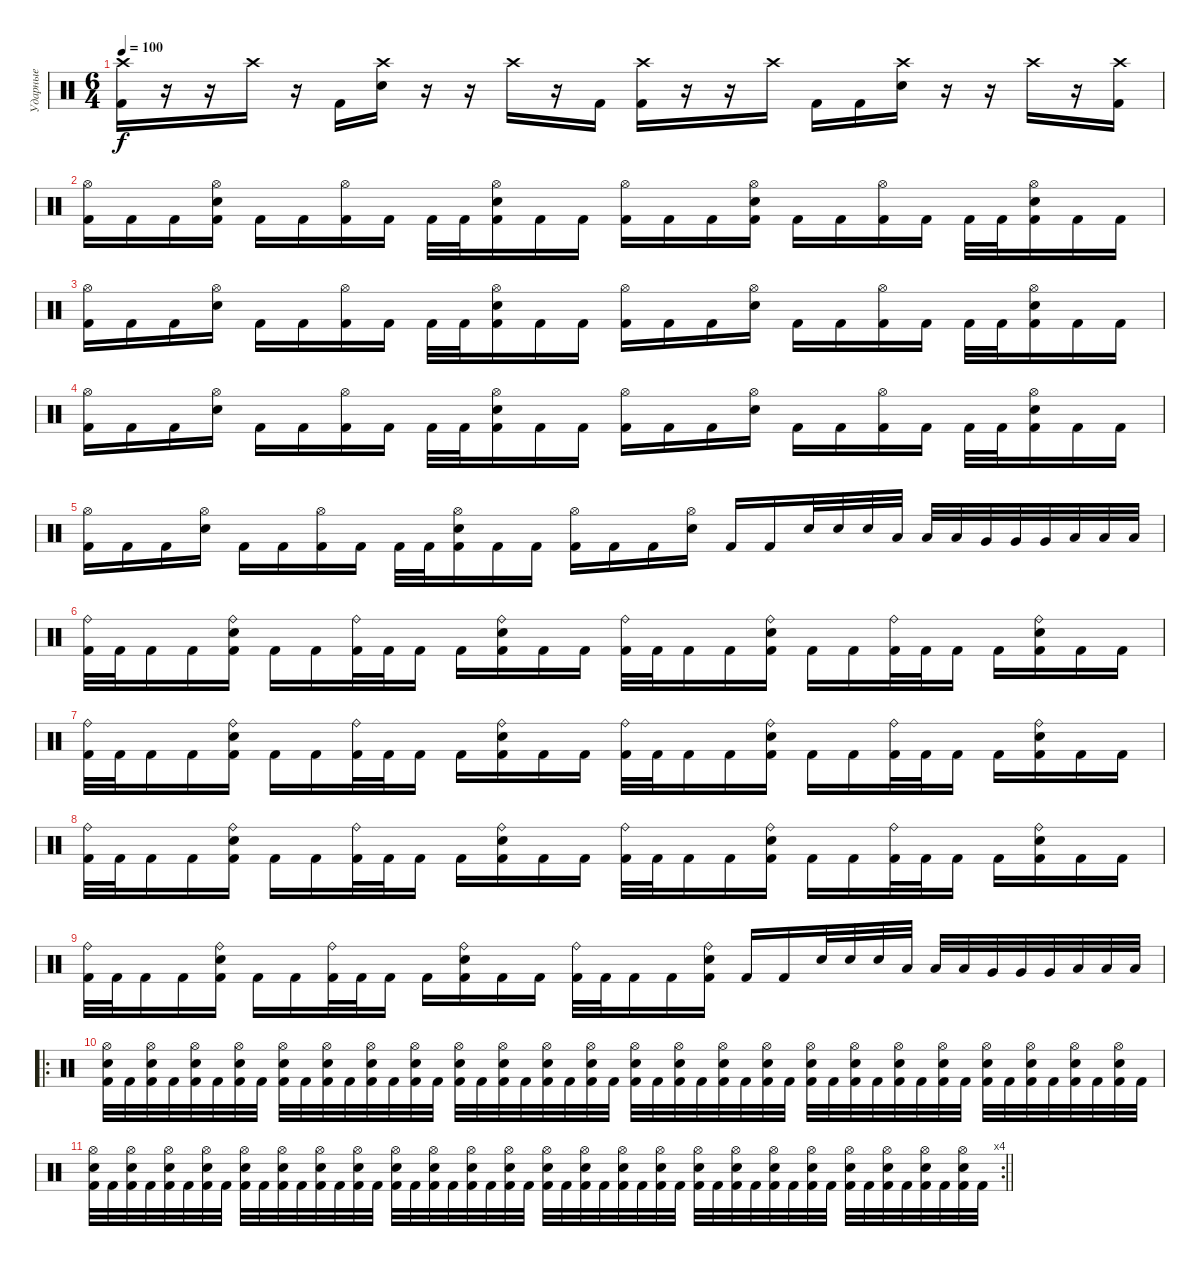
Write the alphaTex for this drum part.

\track ("Ударные" "Ударные") {instrument percussion}
\staff {score}
\articulation defaults
\ts (6 4)
\tempo 100
\clef neutral
\ks c
("Crash high (hit)" "Kick (hit) 2").16{dy f} r.16 r.16 "Crash high (hit)".16 r.16 "Kick (hit) 2".16 ("Crash high (hit)" "Electric Snare (hit)").16 r.16 r.16 "Crash high (hit)".16 r.16 "Kick (hit) 2".16 ("Crash high (hit)" "Kick (hit) 2").16 r.16 r.16 "Crash high (hit)".16 "Kick (hit) 2".16 "Kick (hit) 2".16 ("Crash high (hit)" "Electric Snare (hit)").16 r.16 r.16 "Crash high (hit)".16 r.16 ("Crash high (hit)" "Kick (hit) 2").16 |
("Hi-Hat (open)" "Kick (hit) 2").16 "Kick (hit) 2".16 "Kick (hit) 2".16 ("Hi-Hat (open)" "Electric Snare (hit)" "Kick (hit) 2").16 "Kick (hit) 2".16 "Kick (hit) 2".16 ("Hi-Hat (open)" "Kick (hit) 2").16 "Kick (hit) 2".16 "Kick (hit) 2".32 "Kick (hit) 2".32 ("Hi-Hat (open)" "Electric Snare (hit)" "Kick (hit) 2").16 "Kick (hit) 2".16 "Kick (hit) 2".16 ("Hi-Hat (open)" "Kick (hit) 2").16 "Kick (hit) 2".16 "Kick (hit) 2".16 ("Hi-Hat (open)" "Electric Snare (hit)" "Kick (hit) 2").16 "Kick (hit) 2".16 "Kick (hit) 2".16 ("Hi-Hat (open)" "Kick (hit) 2").16 "Kick (hit) 2".16 "Kick (hit) 2".32 "Kick (hit) 2".32 ("Hi-Hat (open)" "Electric Snare (hit)" "Kick (hit) 2").16 "Kick (hit) 2".16 "Kick (hit) 2".16 |
("Hi-Hat (open)" "Kick (hit) 2").16 "Kick (hit) 2".16 "Kick (hit) 2".16 ("Hi-Hat (open)" "Electric Snare (hit)").16 "Kick (hit) 2".16 "Kick (hit) 2".16 ("Hi-Hat (open)" "Kick (hit) 2").16 "Kick (hit) 2".16 "Kick (hit) 2".32 "Kick (hit) 2".32 ("Hi-Hat (open)" "Electric Snare (hit)" "Kick (hit) 2").16 "Kick (hit) 2".16 "Kick (hit) 2".16 ("Hi-Hat (open)" "Kick (hit) 2").16 "Kick (hit) 2".16 "Kick (hit) 2".16 ("Hi-Hat (open)" "Electric Snare (hit)").16 "Kick (hit) 2".16 "Kick (hit) 2".16 ("Hi-Hat (open)" "Kick (hit) 2").16 "Kick (hit) 2".16 "Kick (hit) 2".32 "Kick (hit) 2".32 ("Hi-Hat (open)" "Electric Snare (hit)" "Kick (hit) 2").16 "Kick (hit) 2".16 "Kick (hit) 2".16 |
("Hi-Hat (open)" "Kick (hit) 2").16 "Kick (hit) 2".16 "Kick (hit) 2".16 ("Hi-Hat (open)" "Electric Snare (hit)").16 "Kick (hit) 2".16 "Kick (hit) 2".16 ("Hi-Hat (open)" "Kick (hit) 2").16 "Kick (hit) 2".16 "Kick (hit) 2".32 "Kick (hit) 2".32 ("Hi-Hat (open)" "Electric Snare (hit)" "Kick (hit) 2").16 "Kick (hit) 2".16 "Kick (hit) 2".16 ("Hi-Hat (open)" "Kick (hit) 2").16 "Kick (hit) 2".16 "Kick (hit) 2".16 ("Hi-Hat (open)" "Electric Snare (hit)").16 "Kick (hit) 2".16 "Kick (hit) 2".16 ("Hi-Hat (open)" "Kick (hit) 2").16 "Kick (hit) 2".16 "Kick (hit) 2".32 "Kick (hit) 2".32 ("Hi-Hat (open)" "Electric Snare (hit)" "Kick (hit) 2").16 "Kick (hit) 2".16 "Kick (hit) 2".16 |
("Hi-Hat (open)" "Kick (hit) 2").16 "Kick (hit) 2".16 "Kick (hit) 2".16 ("Hi-Hat (open)" "Electric Snare (hit)").16 "Kick (hit) 2".16 "Kick (hit) 2".16 ("Hi-Hat (open)" "Kick (hit) 2").16 "Kick (hit) 2".16 "Kick (hit) 2".32 "Kick (hit) 2".32 ("Hi-Hat (open)" "Electric Snare (hit)" "Kick (hit) 2").16 "Kick (hit) 2".16 "Kick (hit) 2".16 ("Hi-Hat (open)" "Kick (hit) 2").16 "Kick (hit) 2".16 "Kick (hit) 2".16 ("Hi-Hat (open)" "Electric Snare (hit)").16 "Kick (hit) 2".16 "Kick (hit) 2".16 "Electric Snare (hit)".32 "Electric Snare (hit)".32 "Electric Snare (hit)".32 "Low Floor Tom (hit)".32 "Low Floor Tom (hit)".32 "Low Floor Tom (hit)".32 "Very Low Tom (hit)".32 "Very Low Tom (hit)".32 "Very Low Tom (hit)".32 "Low Tom (hit)".32 "Low Tom (hit)".32 "Low Tom (hit)".32 |
("Ride (bell)" "Kick (hit) 2").32 "Kick (hit) 2".32 "Kick (hit) 2".16 "Kick (hit) 2".16 ("Ride (bell)" "Electric Snare (hit)" "Kick (hit) 2").16 "Kick (hit) 2".16 "Kick (hit) 2".16 ("Ride (bell)" "Kick (hit) 2").32 "Kick (hit) 2".32 "Kick (hit) 2".16 "Kick (hit) 2".16 ("Ride (bell)" "Electric Snare (hit)" "Kick (hit) 2").16 "Kick (hit) 2".16 "Kick (hit) 2".16 ("Ride (bell)" "Kick (hit) 2").32 "Kick (hit) 2".32 "Kick (hit) 2".16 "Kick (hit) 2".16 ("Ride (bell)" "Electric Snare (hit)" "Kick (hit) 2").16 "Kick (hit) 2".16 "Kick (hit) 2".16 ("Ride (bell)" "Kick (hit) 2").32 "Kick (hit) 2".32 "Kick (hit) 2".16 "Kick (hit) 2".16 ("Ride (bell)" "Electric Snare (hit)" "Kick (hit) 2").16 "Kick (hit) 2".16 "Kick (hit) 2".16 |
("Ride (bell)" "Kick (hit) 2").32 "Kick (hit) 2".32 "Kick (hit) 2".16 "Kick (hit) 2".16 ("Ride (bell)" "Electric Snare (hit)" "Kick (hit) 2").16 "Kick (hit) 2".16 "Kick (hit) 2".16 ("Ride (bell)" "Kick (hit) 2").32 "Kick (hit) 2".32 "Kick (hit) 2".16 "Kick (hit) 2".16 ("Ride (bell)" "Electric Snare (hit)" "Kick (hit) 2").16 "Kick (hit) 2".16 "Kick (hit) 2".16 ("Ride (bell)" "Kick (hit) 2").32 "Kick (hit) 2".32 "Kick (hit) 2".16 "Kick (hit) 2".16 ("Ride (bell)" "Electric Snare (hit)" "Kick (hit) 2").16 "Kick (hit) 2".16 "Kick (hit) 2".16 ("Ride (bell)" "Kick (hit) 2").32 "Kick (hit) 2".32 "Kick (hit) 2".16 "Kick (hit) 2".16 ("Ride (bell)" "Electric Snare (hit)" "Kick (hit) 2").16 "Kick (hit) 2".16 "Kick (hit) 2".16 |
("Ride (bell)" "Kick (hit) 2").32 "Kick (hit) 2".32 "Kick (hit) 2".16 "Kick (hit) 2".16 ("Ride (bell)" "Electric Snare (hit)" "Kick (hit) 2").16 "Kick (hit) 2".16 "Kick (hit) 2".16 ("Ride (bell)" "Kick (hit) 2").32 "Kick (hit) 2".32 "Kick (hit) 2".16 "Kick (hit) 2".16 ("Ride (bell)" "Electric Snare (hit)" "Kick (hit) 2").16 "Kick (hit) 2".16 "Kick (hit) 2".16 ("Ride (bell)" "Kick (hit) 2").32 "Kick (hit) 2".32 "Kick (hit) 2".16 "Kick (hit) 2".16 ("Ride (bell)" "Electric Snare (hit)" "Kick (hit) 2").16 "Kick (hit) 2".16 "Kick (hit) 2".16 ("Ride (bell)" "Kick (hit) 2").32 "Kick (hit) 2".32 "Kick (hit) 2".16 "Kick (hit) 2".16 ("Ride (bell)" "Electric Snare (hit)" "Kick (hit) 2").16 "Kick (hit) 2".16 "Kick (hit) 2".16 |
("Ride (bell)" "Kick (hit) 2").32 "Kick (hit) 2".32 "Kick (hit) 2".16 "Kick (hit) 2".16 ("Ride (bell)" "Electric Snare (hit)" "Kick (hit) 2").16 "Kick (hit) 2".16 "Kick (hit) 2".16 ("Ride (bell)" "Kick (hit) 2").32 "Kick (hit) 2".32 "Kick (hit) 2".16 "Kick (hit) 2".16 ("Ride (bell)" "Electric Snare (hit)" "Kick (hit) 2").16 "Kick (hit) 2".16 "Kick (hit) 2".16 ("Ride (bell)" "Kick (hit) 2").32 "Kick (hit) 2".32 "Kick (hit) 2".16 "Kick (hit) 2".16 ("Ride (bell)" "Electric Snare (hit)" "Kick (hit) 2").16 "Kick (hit) 2".16 "Kick (hit) 2".16 "Electric Snare (hit)".32 "Electric Snare (hit)".32 "Electric Snare (hit)".32 "Low Floor Tom (hit)".32 "Low Floor Tom (hit)".32 "Low Floor Tom (hit)".32 "Very Low Tom (hit)".32 "Very Low Tom (hit)".32 "Very Low Tom (hit)".32 "Low Tom (hit)".32 "Low Tom (hit)".32 "Low Tom (hit)".32 |
\ro
("Hi-Hat (open)" "Electric Snare (hit)" "Kick (hit) 2").32 "Kick (hit) 2".32 ("Hi-Hat (open)" "Electric Snare (hit)" "Kick (hit) 2").32 "Kick (hit) 2".32 ("Hi-Hat (open)" "Electric Snare (hit)" "Kick (hit) 2").32 "Kick (hit) 2".32 ("Hi-Hat (open)" "Electric Snare (hit)" "Kick (hit) 2").32 "Kick (hit) 2".32 ("Hi-Hat (open)" "Electric Snare (hit)" "Kick (hit) 2").32 "Kick (hit) 2".32 ("Hi-Hat (open)" "Electric Snare (hit)" "Kick (hit) 2").32 "Kick (hit) 2".32 ("Hi-Hat (open)" "Electric Snare (hit)" "Kick (hit) 2").32 "Kick (hit) 2".32 ("Hi-Hat (open)" "Electric Snare (hit)" "Kick (hit) 2").32 "Kick (hit) 2".32 ("Hi-Hat (open)" "Electric Snare (hit)" "Kick (hit) 2").32 "Kick (hit) 2".32 ("Hi-Hat (open)" "Electric Snare (hit)" "Kick (hit) 2").32 "Kick (hit) 2".32 ("Hi-Hat (open)" "Electric Snare (hit)" "Kick (hit) 2").32 "Kick (hit) 2".32 ("Hi-Hat (open)" "Electric Snare (hit)" "Kick (hit) 2").32 "Kick (hit) 2".32 ("Hi-Hat (open)" "Electric Snare (hit)" "Kick (hit) 2").32 "Kick (hit) 2".32 ("Hi-Hat (open)" "Electric Snare (hit)" "Kick (hit) 2").32 "Kick (hit) 2".32 ("Hi-Hat (open)" "Electric Snare (hit)" "Kick (hit) 2").32 "Kick (hit) 2".32 ("Hi-Hat (open)" "Electric Snare (hit)" "Kick (hit) 2").32 "Kick (hit) 2".32 ("Hi-Hat (open)" "Electric Snare (hit)" "Kick (hit) 2").32 "Kick (hit) 2".32 ("Hi-Hat (open)" "Electric Snare (hit)" "Kick (hit) 2").32 "Kick (hit) 2".32 ("Hi-Hat (open)" "Electric Snare (hit)" "Kick (hit) 2").32 "Kick (hit) 2".32 ("Hi-Hat (open)" "Electric Snare (hit)" "Kick (hit) 2").32 "Kick (hit) 2".32 ("Hi-Hat (open)" "Electric Snare (hit)" "Kick (hit) 2").32 "Kick (hit) 2".32 ("Hi-Hat (open)" "Electric Snare (hit)" "Kick (hit) 2").32 "Kick (hit) 2".32 ("Hi-Hat (open)" "Electric Snare (hit)" "Kick (hit) 2").32 "Kick (hit) 2".32 ("Hi-Hat (open)" "Electric Snare (hit)" "Kick (hit) 2").32 "Kick (hit) 2".32 |
\rc 4
\barLineRight lightlight
("Hi-Hat (open)" "Electric Snare (hit)" "Kick (hit) 2").32 "Kick (hit) 2".32 ("Hi-Hat (open)" "Electric Snare (hit)" "Kick (hit) 2").32 "Kick (hit) 2".32 ("Hi-Hat (open)" "Electric Snare (hit)" "Kick (hit) 2").32 "Kick (hit) 2".32 ("Hi-Hat (open)" "Electric Snare (hit)" "Kick (hit) 2").32 "Kick (hit) 2".32 ("Hi-Hat (open)" "Electric Snare (hit)" "Kick (hit) 2").32 "Kick (hit) 2".32 ("Hi-Hat (open)" "Electric Snare (hit)" "Kick (hit) 2").32 "Kick (hit) 2".32 ("Hi-Hat (open)" "Electric Snare (hit)" "Kick (hit) 2").32 "Kick (hit) 2".32 ("Hi-Hat (open)" "Electric Snare (hit)" "Kick (hit) 2").32 "Kick (hit) 2".32 ("Hi-Hat (open)" "Electric Snare (hit)" "Kick (hit) 2").32 "Kick (hit) 2".32 ("Hi-Hat (open)" "Electric Snare (hit)" "Kick (hit) 2").32 "Kick (hit) 2".32 ("Hi-Hat (open)" "Electric Snare (hit)" "Kick (hit) 2").32 "Kick (hit) 2".32 ("Hi-Hat (open)" "Electric Snare (hit)" "Kick (hit) 2").32 "Kick (hit) 2".32 ("Hi-Hat (open)" "Electric Snare (hit)" "Kick (hit) 2").32 "Kick (hit) 2".32 ("Hi-Hat (open)" "Electric Snare (hit)" "Kick (hit) 2").32 "Kick (hit) 2".32 ("Hi-Hat (open)" "Electric Snare (hit)" "Kick (hit) 2").32 "Kick (hit) 2".32 ("Hi-Hat (open)" "Electric Snare (hit)" "Kick (hit) 2").32 "Kick (hit) 2".32 ("Hi-Hat (open)" "Electric Snare (hit)" "Kick (hit) 2").32 "Kick (hit) 2".32 ("Hi-Hat (open)" "Electric Snare (hit)" "Kick (hit) 2").32 "Kick (hit) 2".32 ("Hi-Hat (open)" "Electric Snare (hit)" "Kick (hit) 2").32 "Kick (hit) 2".32 ("Hi-Hat (open)" "Electric Snare (hit)" "Kick (hit) 2").32 "Kick (hit) 2".32 ("Hi-Hat (open)" "Electric Snare (hit)" "Kick (hit) 2").32 "Kick (hit) 2".32 ("Hi-Hat (open)" "Electric Snare (hit)" "Kick (hit) 2").32 "Kick (hit) 2".32 ("Hi-Hat (open)" "Electric Snare (hit)" "Kick (hit) 2").32 "Kick (hit) 2".32 ("Hi-Hat (open)" "Electric Snare (hit)" "Kick (hit) 2").32 "Kick (hit) 2".32
